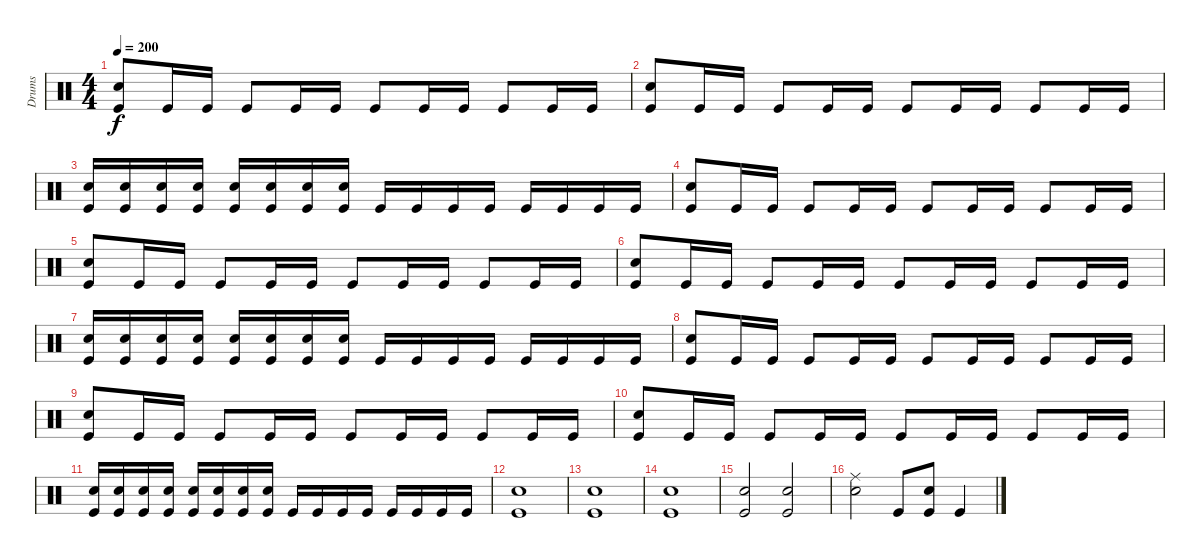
\track ("Drums" "Drums") {instrument percussion}
\staff {score}
\articulation defaults
\ts (4 4)
\tempo 200
\clef neutral
\ks c
("Snare (hit) 2" "Kick (hit)").8{dy f} "Kick (hit)".16 "Kick (hit)".16 "Kick (hit)".8 "Kick (hit)".16 "Kick (hit)".16 "Kick (hit)".8 "Kick (hit)".16 "Kick (hit)".16 "Kick (hit)".8 "Kick (hit)".16 "Kick (hit)".16 |
("Electric Snare (hit)" "Kick (hit)").8 "Kick (hit)".16 "Kick (hit)".16 "Kick (hit)".8 "Kick (hit)".16 "Kick (hit)".16 "Kick (hit)".8 "Kick (hit)".16 "Kick (hit)".16 "Kick (hit)".8 "Kick (hit)".16 "Kick (hit)".16 |
("Snare (hit) 2" "Kick (hit)").16 ("Snare (hit) 2" "Kick (hit)").16 ("Snare (hit) 2" "Kick (hit)").16 ("Snare (hit) 2" "Kick (hit)").16 ("Snare (hit) 2" "Kick (hit)").16 ("Snare (hit) 2" "Kick (hit)").16 ("Snare (hit) 2" "Kick (hit)").16 ("Snare (hit) 2" "Kick (hit)").16 "Kick (hit)".16 "Kick (hit)".16 "Kick (hit)".16 "Kick (hit)".16 "Kick (hit)".16 "Kick (hit)".16 "Kick (hit)".16 "Kick (hit)".16 |
("Electric Snare (hit)" "Kick (hit)").8 "Kick (hit)".16 "Kick (hit)".16 "Kick (hit)".8 "Kick (hit)".16 "Kick (hit)".16 "Kick (hit)".8 "Kick (hit)".16 "Kick (hit)".16 "Kick (hit)".8 "Kick (hit)".16 "Kick (hit)".16 |
("Snare (hit) 2" "Kick (hit)").8 "Kick (hit)".16 "Kick (hit)".16 "Kick (hit)".8 "Kick (hit)".16 "Kick (hit)".16 "Kick (hit)".8 "Kick (hit)".16 "Kick (hit)".16 "Kick (hit)".8 "Kick (hit)".16 "Kick (hit)".16 |
("Electric Snare (hit)" "Kick (hit)").8 "Kick (hit)".16 "Kick (hit)".16 "Kick (hit)".8 "Kick (hit)".16 "Kick (hit)".16 "Kick (hit)".8 "Kick (hit)".16 "Kick (hit)".16 "Kick (hit)".8 "Kick (hit)".16 "Kick (hit)".16 |
("Snare (hit) 2" "Kick (hit)").16 ("Snare (hit) 2" "Kick (hit)").16 ("Snare (hit) 2" "Kick (hit)").16 ("Snare (hit) 2" "Kick (hit)").16 ("Snare (hit) 2" "Kick (hit)").16 ("Snare (hit) 2" "Kick (hit)").16 ("Snare (hit) 2" "Kick (hit)").16 ("Snare (hit) 2" "Kick (hit)").16 "Kick (hit)".16 "Kick (hit)".16 "Kick (hit)".16 "Kick (hit)".16 "Kick (hit)".16 "Kick (hit)".16 "Kick (hit)".16 "Kick (hit)".16 |
("Electric Snare (hit)" "Kick (hit)").8 "Kick (hit)".16 "Kick (hit)".16 "Kick (hit)".8 "Kick (hit)".16 "Kick (hit)".16 "Kick (hit)".8 "Kick (hit)".16 "Kick (hit)".16 "Kick (hit)".8 "Kick (hit)".16 "Kick (hit)".16 |
("Snare (hit) 2" "Kick (hit)").8 "Kick (hit)".16 "Kick (hit)".16 "Kick (hit)".8 "Kick (hit)".16 "Kick (hit)".16 "Kick (hit)".8 "Kick (hit)".16 "Kick (hit)".16 "Kick (hit)".8 "Kick (hit)".16 "Kick (hit)".16 |
("Electric Snare (hit)" "Kick (hit)").8 "Kick (hit)".16 "Kick (hit)".16 "Kick (hit)".8 "Kick (hit)".16 "Kick (hit)".16 "Kick (hit)".8 "Kick (hit)".16 "Kick (hit)".16 "Kick (hit)".8 "Kick (hit)".16 "Kick (hit)".16 |
("Snare (hit) 2" "Kick (hit)").16 ("Snare (hit) 2" "Kick (hit)").16 ("Snare (hit) 2" "Kick (hit)").16 ("Snare (hit) 2" "Kick (hit)").16 ("Snare (hit) 2" "Kick (hit)").16 ("Snare (hit) 2" "Kick (hit)").16 ("Snare (hit) 2" "Kick (hit)").16 ("Snare (hit) 2" "Kick (hit)").16 "Kick (hit)".16 "Kick (hit)".16 "Kick (hit)".16 "Kick (hit)".16 "Kick (hit)".16 "Kick (hit)".16 "Kick (hit)".16 "Kick (hit)".16 |
("Electric Snare (hit)" "Kick (hit)").1 |
("Snare (hit) 2" "Kick (hit)").1 |
("Electric Snare (hit)" "Kick (hit)").1 |
("Snare (hit) 2" "Kick (hit)").2 ("Electric Snare (hit)" "Kick (hit)").2 |
("Ride (middle)" "Electric Snare (hit)").2 "Kick (hit)".8 ("Snare (hit) 2" "Kick (hit)").8 "Kick (hit)".4
